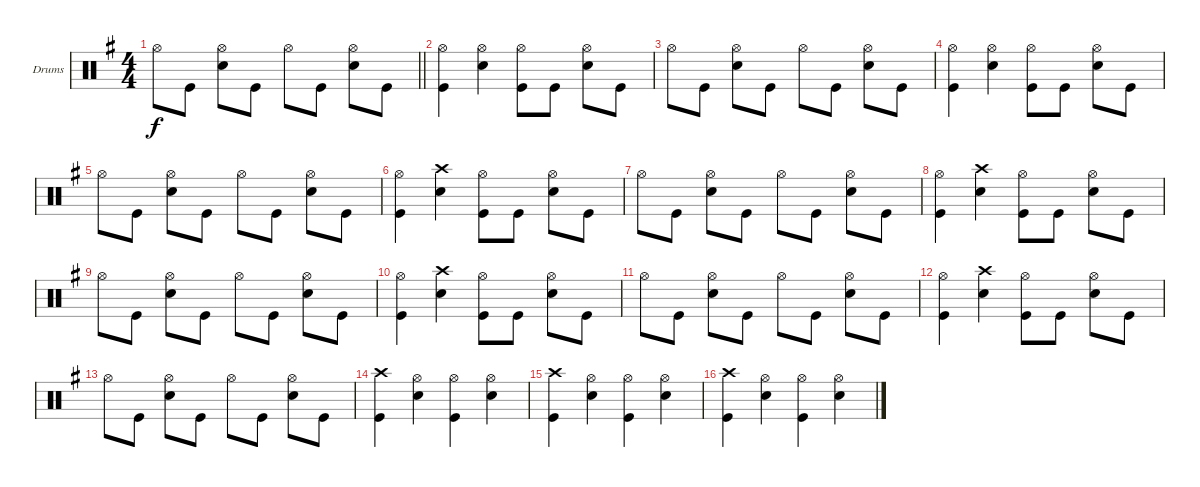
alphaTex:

\defaultSystemsLayout 4
\bracketExtendMode groupsimilarinstruments
\firstSystemTrackNameOrientation horizontal
\otherSystemsTrackNameOrientation horizontal
\track ("Drums" "Drums") {instrument percussion}
\staff {score}
\articulation defaults
\ts (4 4)
\tempo (188 hide)
\clef neutral
\barLineRight lightlight
\ks g "Hi-Hat (open)".8{dy f} "Kick (hit)".8
("Snare (hit) 2" "Hi-Hat (open)").8 "Kick (hit)".8 "Hi-Hat (open)".8 "Kick (hit)".8 ("Snare (hit) 2" "Hi-Hat (open)").8 "Kick (hit)".8 |
("Kick (hit)" "Hi-Hat (open)").4 ("Snare (hit) 2" "Hi-Hat (open)").4 ("Kick (hit)" "Hi-Hat (open)").8 "Kick (hit)".8 ("Snare (hit) 2" "Hi-Hat (open)").8 "Kick (hit)".8 |
"Hi-Hat (open)".8 "Kick (hit)".8 ("Snare (hit) 2" "Hi-Hat (open)").8 "Kick (hit)".8 "Hi-Hat (open)".8 "Kick (hit)".8 ("Snare (hit) 2" "Hi-Hat (open)").8 "Kick (hit)".8 |
("Kick (hit)" "Hi-Hat (open)").4 ("Snare (hit) 2" "Hi-Hat (open)").4 ("Kick (hit)" "Hi-Hat (open)").8 "Kick (hit)".8 ("Snare (hit) 2" "Hi-Hat (open)").8 "Kick (hit)".8 |
"Hi-Hat (open)".8 "Kick (hit)".8 ("Snare (hit) 2" "Hi-Hat (open)").8 "Kick (hit)".8 "Hi-Hat (open)".8 "Kick (hit)".8 ("Snare (hit) 2" "Hi-Hat (open)").8 "Kick (hit)".8 |
("Kick (hit)" "Hi-Hat (open)").4 ("Snare (hit) 2" "Crash high (hit)").4 ("Kick (hit)" "Hi-Hat (open)").8 "Kick (hit)".8 ("Snare (hit) 2" "Hi-Hat (open)").8 "Kick (hit)".8 |
"Hi-Hat (open)".8 "Kick (hit)".8 ("Snare (hit) 2" "Hi-Hat (open)").8 "Kick (hit)".8 "Hi-Hat (open)".8 "Kick (hit)".8 ("Snare (hit) 2" "Hi-Hat (open)").8 "Kick (hit)".8 |
("Kick (hit)" "Hi-Hat (open)").4 ("Snare (hit) 2" "Crash high (hit)").4 ("Kick (hit)" "Hi-Hat (open)").8 "Kick (hit)".8 ("Snare (hit) 2" "Hi-Hat (open)").8 "Kick (hit)".8 |
"Hi-Hat (open)".8 "Kick (hit)".8 ("Snare (hit) 2" "Hi-Hat (open)").8 "Kick (hit)".8 "Hi-Hat (open)".8 "Kick (hit)".8 ("Snare (hit) 2" "Hi-Hat (open)").8 "Kick (hit)".8 |
("Kick (hit)" "Hi-Hat (open)").4 ("Snare (hit) 2" "Crash high (hit)").4 ("Kick (hit)" "Hi-Hat (open)").8 "Kick (hit)".8 ("Snare (hit) 2" "Hi-Hat (open)").8 "Kick (hit)".8 |
"Hi-Hat (open)".8 "Kick (hit)".8 ("Snare (hit) 2" "Hi-Hat (open)").8 "Kick (hit)".8 "Hi-Hat (open)".8 "Kick (hit)".8 ("Snare (hit) 2" "Hi-Hat (open)").8 "Kick (hit)".8 |
("Kick (hit)" "Hi-Hat (open)").4 ("Snare (hit) 2" "Crash high (hit)").4 ("Kick (hit)" "Hi-Hat (open)").8 "Kick (hit)".8 ("Snare (hit) 2" "Hi-Hat (open)").8 "Kick (hit)".8 |
"Hi-Hat (open)".8 "Kick (hit)".8 ("Snare (hit) 2" "Hi-Hat (open)").8 "Kick (hit)".8 "Hi-Hat (open)".8 "Kick (hit)".8 ("Snare (hit) 2" "Hi-Hat (open)").8 "Kick (hit)".8 |
("Kick (hit)" "Crash high (hit)").4 ("Snare (hit) 2" "Hi-Hat (open)").4 ("Kick (hit)" "Hi-Hat (open)").4 ("Snare (hit) 2" "Hi-Hat (open)").4 |
("Kick (hit)" "Crash high (hit)").4 ("Snare (hit) 2" "Hi-Hat (open)").4 ("Kick (hit)" "Hi-Hat (open)").4 ("Snare (hit) 2" "Hi-Hat (open)").4 |
("Kick (hit)" "Crash high (hit)").4 ("Snare (hit) 2" "Hi-Hat (open)").4 ("Kick (hit)" "Hi-Hat (open)").4 ("Snare (hit) 2" "Hi-Hat (open)").4
